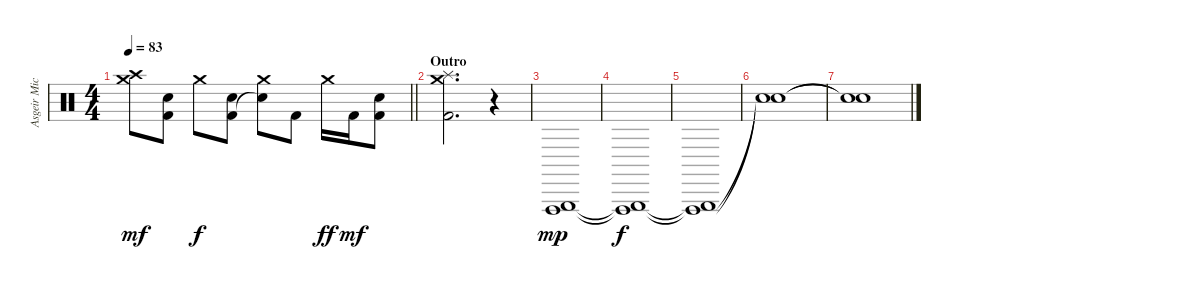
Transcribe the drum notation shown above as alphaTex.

\track ("Asgeir Mickelson" "Asgeir Mic") {instrument percussion}
\staff {score}
\articulation defaults
\ts (4 4)
\tempo 83
\clef neutral
\barLineRight lightlight
\ks c
("Crash high (hit)" "Crash medium (hit)").8{dy mf} ("Snare (hit) 2" "Kick (hit) 2").8 "Crash medium (hit)".8{dy f} ("Snare (hit) 2" "Kick (hit) 2").8 ("Crash medium (hit)" "Snare (hit)"{t}).8 "Kick (hit) 2".8 "Crash medium (hit)".16{dy ff} "Kick (hit) 2".16{dy mf} ("Snare (hit) 2" "Kick (hit) 2").8 |
\section ("" "Outro")
("Crash medium (hit)" "Splash (hit)" "Kick (hit) 2").2{d} r.4{volume 0} |
("Vibraslap (hit)" "Triangle (hit)").1{dy mp volume 16} |
("Vibraslap (hit)"{t} "Triangle (hit)"{t}).1{dy f} |
("Vibraslap (hit)"{t} "Triangle (hit)"{t}).1{volume 5} |
("Snare (hit)"{t} "Snare (hit)"{t}).1 |
("Snare (hit)"{t} "Snare (hit)"{t}).1
